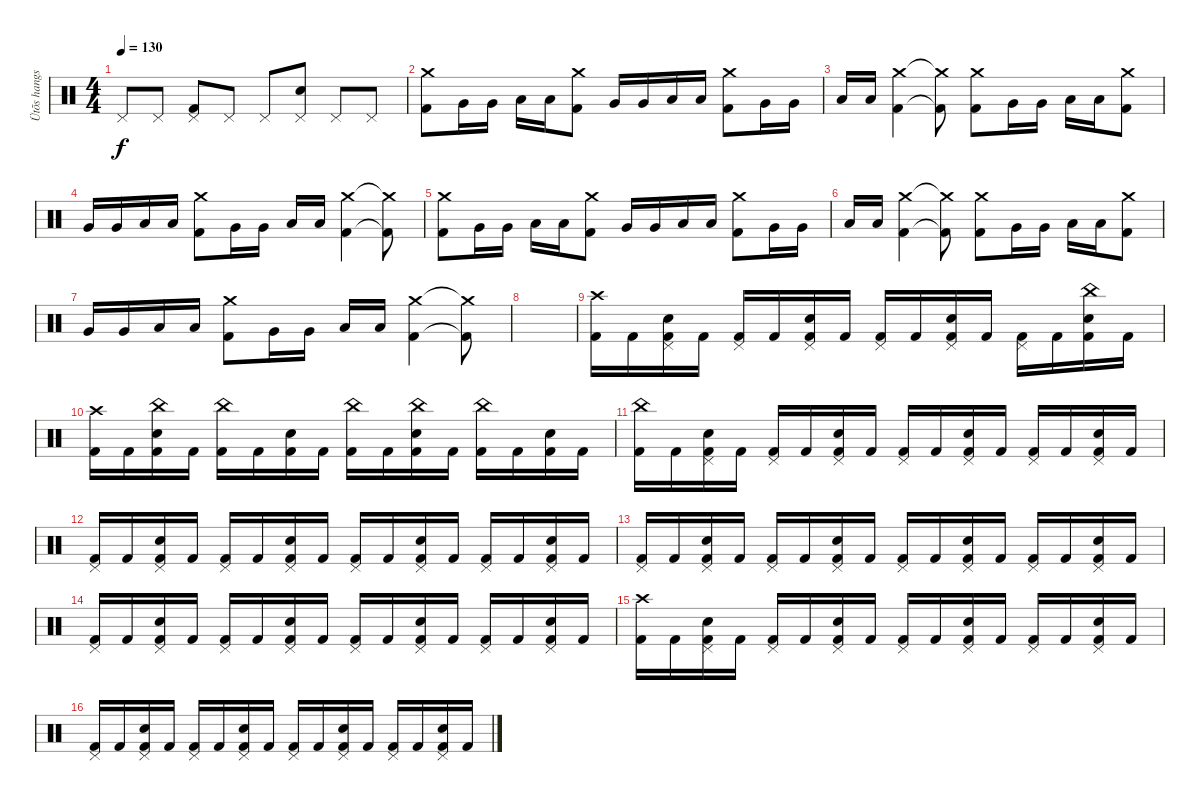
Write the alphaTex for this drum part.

\track ("Ütõs hangszer" "Ütõs hangs") {instrument percussion}
\staff {score}
\articulation defaults
\ts (4 4)
\tempo 130
\clef neutral
\ks c "Pedal Hi-Hat (hit)".8{dy f} "Pedal Hi-Hat (hit)".8
("Pedal Hi-Hat (hit)" "Kick (hit) 2").8 "Pedal Hi-Hat (hit)".8 "Pedal Hi-Hat (hit)".8 ("Pedal Hi-Hat (hit)" "Electric Snare (hit)").8 "Pedal Hi-Hat (hit)".8 "Pedal Hi-Hat (hit)".8 |
("Crash medium (hit)" "Kick (hit) 2").8 "Very Low Tom (hit)".16 "Very Low Tom (hit)".16 "Low Floor Tom (hit)".16 "Low Floor Tom (hit)".16 ("Crash medium (hit)" "Kick (hit) 2").8 "Very Low Tom (hit)".16 "Very Low Tom (hit)".16 "Low Floor Tom (hit)".16 "Low Floor Tom (hit)".16 ("Crash medium (hit)" "Kick (hit) 2").8 "Very Low Tom (hit)".16 "Very Low Tom (hit)".16 |
"Low Floor Tom (hit)".16 "Low Floor Tom (hit)".16 ("Crash medium (hit)" "Kick (hit) 2").4 ("Crash medium (hit)"{t} "Kick (hit) 2"{t}).8 ("Crash medium (hit)" "Kick (hit) 2").8 "Very Low Tom (hit)".16 "Very Low Tom (hit)".16 "Low Floor Tom (hit)".16 "Low Floor Tom (hit)".16 ("Crash medium (hit)" "Kick (hit) 2").8 |
"Very Low Tom (hit)".16 "Very Low Tom (hit)".16 "Low Floor Tom (hit)".16 "Low Floor Tom (hit)".16 ("Crash medium (hit)" "Kick (hit) 2").8 "Very Low Tom (hit)".16 "Very Low Tom (hit)".16 "Low Floor Tom (hit)".16 "Low Floor Tom (hit)".16 ("Crash medium (hit)" "Kick (hit) 2").4 ("Crash medium (hit)"{t} "Kick (hit) 2"{t}).8 |
("Crash medium (hit)" "Kick (hit) 2").8 "Very Low Tom (hit)".16 "Very Low Tom (hit)".16 "Low Floor Tom (hit)".16 "Low Floor Tom (hit)".16 ("Crash medium (hit)" "Kick (hit) 2").8 "Very Low Tom (hit)".16 "Very Low Tom (hit)".16 "Low Floor Tom (hit)".16 "Low Floor Tom (hit)".16 ("Crash medium (hit)" "Kick (hit) 2").8 "Very Low Tom (hit)".16 "Very Low Tom (hit)".16 |
"Low Floor Tom (hit)".16 "Low Floor Tom (hit)".16 ("Crash medium (hit)" "Kick (hit) 2").4 ("Crash medium (hit)"{t} "Kick (hit) 2"{t}).8 ("Crash medium (hit)" "Kick (hit) 2").8 "Very Low Tom (hit)".16 "Very Low Tom (hit)".16 "Low Floor Tom (hit)".16 "Low Floor Tom (hit)".16 ("Crash medium (hit)" "Kick (hit) 2").8 |
"Very Low Tom (hit)".16 "Very Low Tom (hit)".16 "Low Floor Tom (hit)".16 "Low Floor Tom (hit)".16 ("Crash medium (hit)" "Kick (hit) 2").8 "Very Low Tom (hit)".16 "Very Low Tom (hit)".16 "Low Floor Tom (hit)".16 "Low Floor Tom (hit)".16 ("Crash medium (hit)" "Kick (hit) 2").4 ("Crash medium (hit)"{t} "Kick (hit) 2"{t}).8 |
|
("Crash high (hit)" "Kick (hit) 2").16 "Kick (hit) 2".16 ("Pedal Hi-Hat (hit)" "Electric Snare (hit)" "Kick (hit) 2").16 "Kick (hit) 2".16 ("Pedal Hi-Hat (hit)" "Kick (hit) 2").16 "Kick (hit) 2".16 ("Pedal Hi-Hat (hit)" "Electric Snare (hit)" "Kick (hit) 2").16 "Kick (hit) 2".16 ("Pedal Hi-Hat (hit)" "Kick (hit) 2").16 "Kick (hit) 2".16 ("Pedal Hi-Hat (hit)" "Electric Snare (hit)" "Kick (hit) 2").16 "Kick (hit) 2".16 ("Pedal Hi-Hat (hit)" "Kick (hit) 2").16 "Kick (hit) 2".16 ("China (hit)" "Electric Snare (hit)" "Kick (hit) 2").16 "Kick (hit) 2".16 |
("Crash high (hit)" "Kick (hit) 2").16 "Kick (hit) 2".16 ("China (hit)" "Electric Snare (hit)" "Kick (hit) 2").16 "Kick (hit) 2".16 ("China (hit)" "Kick (hit) 2").16 "Kick (hit) 2".16 ("Electric Snare (hit)" "Kick (hit) 2").16 "Kick (hit) 2".16 ("China (hit)" "Kick (hit) 2").16 "Kick (hit) 2".16 ("China (hit)" "Electric Snare (hit)" "Kick (hit) 2").16 "Kick (hit) 2".16 ("China (hit)" "Kick (hit) 2").16 "Kick (hit) 2".16 ("Electric Snare (hit)" "Kick (hit) 2").16 "Kick (hit) 2".16 |
("China (hit)" "Kick (hit) 2").16 "Kick (hit) 2".16 ("Pedal Hi-Hat (hit)" "Electric Snare (hit)" "Kick (hit) 2").16 "Kick (hit) 2".16 ("Pedal Hi-Hat (hit)" "Kick (hit) 2").16 "Kick (hit) 2".16 ("Pedal Hi-Hat (hit)" "Electric Snare (hit)" "Kick (hit) 2").16 "Kick (hit) 2".16 ("Pedal Hi-Hat (hit)" "Kick (hit) 2").16 "Kick (hit) 2".16 ("Pedal Hi-Hat (hit)" "Electric Snare (hit)" "Kick (hit) 2").16 "Kick (hit) 2".16 ("Pedal Hi-Hat (hit)" "Kick (hit) 2").16 "Kick (hit) 2".16 ("Pedal Hi-Hat (hit)" "Electric Snare (hit)" "Kick (hit) 2").16 "Kick (hit) 2".16 |
("Pedal Hi-Hat (hit)" "Kick (hit) 2").16 "Kick (hit) 2".16 ("Pedal Hi-Hat (hit)" "Electric Snare (hit)" "Kick (hit) 2").16 "Kick (hit) 2".16 ("Pedal Hi-Hat (hit)" "Kick (hit) 2").16 "Kick (hit) 2".16 ("Pedal Hi-Hat (hit)" "Electric Snare (hit)" "Kick (hit) 2").16 "Kick (hit) 2".16 ("Pedal Hi-Hat (hit)" "Kick (hit) 2").16 "Kick (hit) 2".16 ("Pedal Hi-Hat (hit)" "Electric Snare (hit)" "Kick (hit) 2").16 "Kick (hit) 2".16 ("Pedal Hi-Hat (hit)" "Kick (hit) 2").16 "Kick (hit) 2".16 ("Pedal Hi-Hat (hit)" "Electric Snare (hit)" "Kick (hit) 2").16 "Kick (hit) 2".16 |
("Pedal Hi-Hat (hit)" "Kick (hit) 2").16 "Kick (hit) 2".16 ("Pedal Hi-Hat (hit)" "Electric Snare (hit)" "Kick (hit) 2").16 "Kick (hit) 2".16 ("Pedal Hi-Hat (hit)" "Kick (hit) 2").16 "Kick (hit) 2".16 ("Pedal Hi-Hat (hit)" "Electric Snare (hit)" "Kick (hit) 2").16 "Kick (hit) 2".16 ("Pedal Hi-Hat (hit)" "Kick (hit) 2").16 "Kick (hit) 2".16 ("Pedal Hi-Hat (hit)" "Electric Snare (hit)" "Kick (hit) 2").16 "Kick (hit) 2".16 ("Pedal Hi-Hat (hit)" "Kick (hit) 2").16 "Kick (hit) 2".16 ("Pedal Hi-Hat (hit)" "Electric Snare (hit)" "Kick (hit) 2").16 "Kick (hit) 2".16 |
("Pedal Hi-Hat (hit)" "Kick (hit) 2").16 "Kick (hit) 2".16 ("Pedal Hi-Hat (hit)" "Electric Snare (hit)" "Kick (hit) 2").16 "Kick (hit) 2".16 ("Pedal Hi-Hat (hit)" "Kick (hit) 2").16 "Kick (hit) 2".16 ("Pedal Hi-Hat (hit)" "Electric Snare (hit)" "Kick (hit) 2").16 "Kick (hit) 2".16 ("Pedal Hi-Hat (hit)" "Kick (hit) 2").16 "Kick (hit) 2".16 ("Pedal Hi-Hat (hit)" "Electric Snare (hit)" "Kick (hit) 2").16 "Kick (hit) 2".16 ("Pedal Hi-Hat (hit)" "Kick (hit) 2").16 "Kick (hit) 2".16 ("Pedal Hi-Hat (hit)" "Electric Snare (hit)" "Kick (hit) 2").16 "Kick (hit) 2".16 |
("Crash high (hit)" "Kick (hit) 2").16 "Kick (hit) 2".16 ("Pedal Hi-Hat (hit)" "Electric Snare (hit)" "Kick (hit) 2").16 "Kick (hit) 2".16 ("Pedal Hi-Hat (hit)" "Kick (hit) 2").16 "Kick (hit) 2".16 ("Pedal Hi-Hat (hit)" "Electric Snare (hit)" "Kick (hit) 2").16 "Kick (hit) 2".16 ("Pedal Hi-Hat (hit)" "Kick (hit) 2").16 "Kick (hit) 2".16 ("Pedal Hi-Hat (hit)" "Electric Snare (hit)" "Kick (hit) 2").16 "Kick (hit) 2".16 ("Pedal Hi-Hat (hit)" "Kick (hit) 2").16 "Kick (hit) 2".16 ("Pedal Hi-Hat (hit)" "Electric Snare (hit)" "Kick (hit) 2").16 "Kick (hit) 2".16 |
("Pedal Hi-Hat (hit)" "Kick (hit) 2").16 "Kick (hit) 2".16 ("Pedal Hi-Hat (hit)" "Electric Snare (hit)" "Kick (hit) 2").16 "Kick (hit) 2".16 ("Pedal Hi-Hat (hit)" "Kick (hit) 2").16 "Kick (hit) 2".16 ("Pedal Hi-Hat (hit)" "Electric Snare (hit)" "Kick (hit) 2").16 "Kick (hit) 2".16 ("Pedal Hi-Hat (hit)" "Kick (hit) 2").16 "Kick (hit) 2".16 ("Pedal Hi-Hat (hit)" "Electric Snare (hit)" "Kick (hit) 2").16 "Kick (hit) 2".16 ("Pedal Hi-Hat (hit)" "Kick (hit) 2").16 "Kick (hit) 2".16 ("Pedal Hi-Hat (hit)" "Electric Snare (hit)" "Kick (hit) 2").16 "Kick (hit) 2".16
